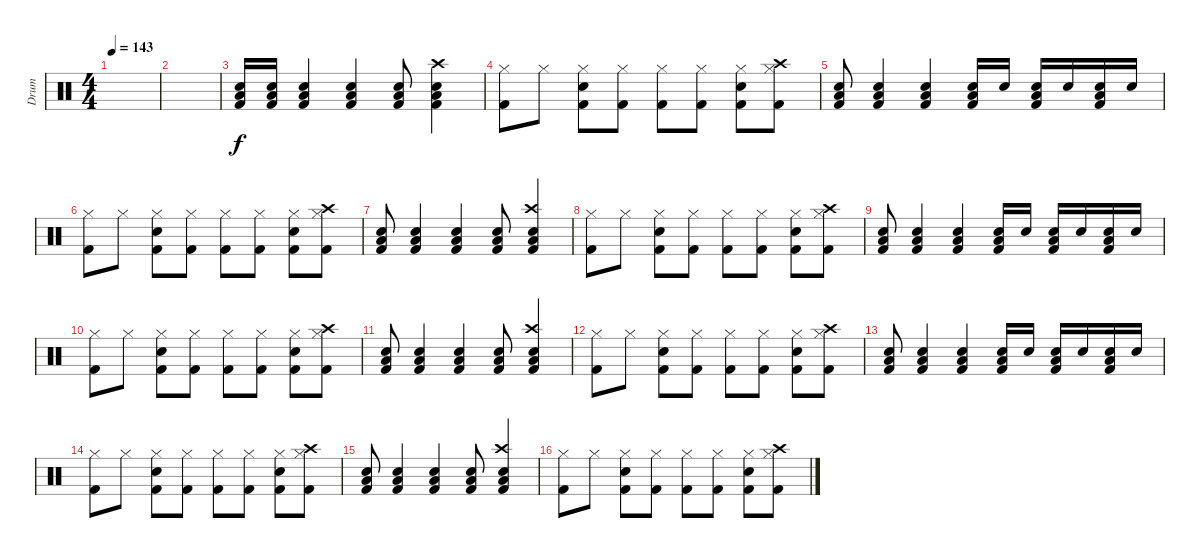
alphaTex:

\track ("Drum" "Drum") {instrument percussion}
\staff {score}
\articulation defaults
\ts (4 4)
\tempo 143
\clef neutral
\ks c
|
|
("Kick (hit) 2" "Electric Snare (hit)" "Low Floor Tom (hit)").16 ("Kick (hit) 2" "Electric Snare (hit)" "Low Floor Tom (hit)").16 ("Kick (hit) 2" "Electric Snare (hit)" "Low Floor Tom (hit)").4 ("Kick (hit) 2" "Electric Snare (hit)" "Low Floor Tom (hit)").4 ("Kick (hit) 2" "Electric Snare (hit)" "Low Floor Tom (hit)").8 ("Kick (hit) 2" "Crash high (hit)" "Electric Snare (hit)" "Low Floor Tom (hit)").4 |
("Kick (hit) 2" "Hi-Hat (closed)").8 "Hi-Hat (closed)".8 ("Snare (hit) 2" "Kick (hit) 2" "Hi-Hat (closed)").8 ("Kick (hit) 2" "Hi-Hat (closed)").8 ("Kick (hit) 2" "Hi-Hat (closed)").8 ("Kick (hit) 2" "Hi-Hat (closed)").8 ("Snare (hit) 2" "Kick (hit) 2" "Hi-Hat (closed)").8 ("Crash high (hit)" "Kick (hit) 2" "Hi-Hat (closed)").8 |
("Snare (hit) 2" "Kick (hit) 2" "Low Floor Tom (hit)").8 ("Snare (hit) 2" "Kick (hit) 2" "Low Floor Tom (hit)").4 ("Snare (hit) 2" "Kick (hit) 2" "Low Floor Tom (hit)").4 ("Snare (hit) 2" "Kick (hit) 2" "Low Floor Tom (hit)").16 "Snare (hit) 2".16 ("Snare (hit) 2" "Kick (hit) 2" "Low Floor Tom (hit)").16 "Snare (hit) 2".16 ("Snare (hit) 2" "Kick (hit) 2" "Low Floor Tom (hit)").16 "Snare (hit) 2".16 |
("Kick (hit) 2" "Hi-Hat (closed)").8 "Hi-Hat (closed)".8 ("Snare (hit) 2" "Kick (hit) 2" "Hi-Hat (closed)").8 ("Kick (hit) 2" "Hi-Hat (closed)").8 ("Kick (hit) 2" "Hi-Hat (closed)").8 ("Kick (hit) 2" "Hi-Hat (closed)").8 ("Snare (hit) 2" "Kick (hit) 2" "Hi-Hat (closed)").8 ("Crash high (hit)" "Kick (hit) 2" "Hi-Hat (closed)").8 |
("Snare (hit) 2" "Kick (hit) 2" "Low Floor Tom (hit)").8 ("Snare (hit) 2" "Kick (hit) 2" "Low Floor Tom (hit)").4 ("Snare (hit) 2" "Kick (hit) 2" "Low Floor Tom (hit)").4 ("Snare (hit) 2" "Kick (hit) 2" "Low Floor Tom (hit)").8 ("Crash high (hit)" "Snare (hit) 2" "Kick (hit) 2" "Low Floor Tom (hit)").4 |
("Kick (hit) 2" "Hi-Hat (closed)").8 "Hi-Hat (closed)".8 ("Snare (hit) 2" "Kick (hit) 2" "Hi-Hat (closed)").8 ("Kick (hit) 2" "Hi-Hat (closed)").8 ("Kick (hit) 2" "Hi-Hat (closed)").8 ("Kick (hit) 2" "Hi-Hat (closed)").8 ("Snare (hit) 2" "Kick (hit) 2" "Hi-Hat (closed)").8 ("Crash high (hit)" "Kick (hit) 2" "Hi-Hat (closed)").8 |
("Snare (hit) 2" "Kick (hit) 2" "Low Floor Tom (hit)").8 ("Snare (hit) 2" "Kick (hit) 2" "Low Floor Tom (hit)").4 ("Snare (hit) 2" "Kick (hit) 2" "Low Floor Tom (hit)").4 ("Snare (hit) 2" "Kick (hit) 2" "Low Floor Tom (hit)").16 "Snare (hit) 2".16 ("Snare (hit) 2" "Kick (hit) 2" "Low Floor Tom (hit)").16 "Snare (hit) 2".16 ("Snare (hit) 2" "Kick (hit) 2" "Low Floor Tom (hit)").16 "Snare (hit) 2".16 |
("Kick (hit) 2" "Hi-Hat (closed)").8 "Hi-Hat (closed)".8 ("Snare (hit) 2" "Kick (hit) 2" "Hi-Hat (closed)").8 ("Kick (hit) 2" "Hi-Hat (closed)").8 ("Kick (hit) 2" "Hi-Hat (closed)").8 ("Kick (hit) 2" "Hi-Hat (closed)").8 ("Snare (hit) 2" "Kick (hit) 2" "Hi-Hat (closed)").8 ("Crash high (hit)" "Kick (hit) 2" "Hi-Hat (closed)").8 |
("Snare (hit) 2" "Kick (hit) 2" "Low Floor Tom (hit)").8 ("Snare (hit) 2" "Kick (hit) 2" "Low Floor Tom (hit)").4 ("Snare (hit) 2" "Kick (hit) 2" "Low Floor Tom (hit)").4 ("Snare (hit) 2" "Kick (hit) 2" "Low Floor Tom (hit)").8 ("Crash high (hit)" "Snare (hit) 2" "Kick (hit) 2" "Low Floor Tom (hit)").4 |
("Kick (hit) 2" "Hi-Hat (closed)").8 "Hi-Hat (closed)".8 ("Snare (hit) 2" "Kick (hit) 2" "Hi-Hat (closed)").8 ("Kick (hit) 2" "Hi-Hat (closed)").8 ("Kick (hit) 2" "Hi-Hat (closed)").8 ("Kick (hit) 2" "Hi-Hat (closed)").8 ("Snare (hit) 2" "Kick (hit) 2" "Hi-Hat (closed)").8 ("Crash high (hit)" "Kick (hit) 2" "Hi-Hat (closed)").8 |
("Snare (hit) 2" "Kick (hit) 2" "Low Floor Tom (hit)").8 ("Snare (hit) 2" "Kick (hit) 2" "Low Floor Tom (hit)").4 ("Snare (hit) 2" "Kick (hit) 2" "Low Floor Tom (hit)").4 ("Snare (hit) 2" "Kick (hit) 2" "Low Floor Tom (hit)").16 "Snare (hit) 2".16 ("Snare (hit) 2" "Kick (hit) 2" "Low Floor Tom (hit)").16 "Snare (hit) 2".16 ("Snare (hit) 2" "Kick (hit) 2" "Low Floor Tom (hit)").16 "Snare (hit) 2".16 |
("Kick (hit) 2" "Hi-Hat (closed)").8 "Hi-Hat (closed)".8 ("Snare (hit) 2" "Kick (hit) 2" "Hi-Hat (closed)").8 ("Kick (hit) 2" "Hi-Hat (closed)").8 ("Kick (hit) 2" "Hi-Hat (closed)").8 ("Kick (hit) 2" "Hi-Hat (closed)").8 ("Snare (hit) 2" "Kick (hit) 2" "Hi-Hat (closed)").8 ("Crash high (hit)" "Kick (hit) 2" "Hi-Hat (closed)").8 |
("Snare (hit) 2" "Kick (hit) 2" "Low Floor Tom (hit)").8 ("Snare (hit) 2" "Kick (hit) 2" "Low Floor Tom (hit)").4 ("Snare (hit) 2" "Kick (hit) 2" "Low Floor Tom (hit)").4 ("Snare (hit) 2" "Kick (hit) 2" "Low Floor Tom (hit)").8 ("Crash high (hit)" "Snare (hit) 2" "Kick (hit) 2" "Low Floor Tom (hit)").4 |
("Kick (hit) 2" "Hi-Hat (closed)").8 "Hi-Hat (closed)".8 ("Snare (hit) 2" "Kick (hit) 2" "Hi-Hat (closed)").8 ("Kick (hit) 2" "Hi-Hat (closed)").8 ("Kick (hit) 2" "Hi-Hat (closed)").8 ("Kick (hit) 2" "Hi-Hat (closed)").8 ("Snare (hit) 2" "Kick (hit) 2" "Hi-Hat (closed)").8 ("Crash high (hit)" "Kick (hit) 2" "Hi-Hat (closed)").8
